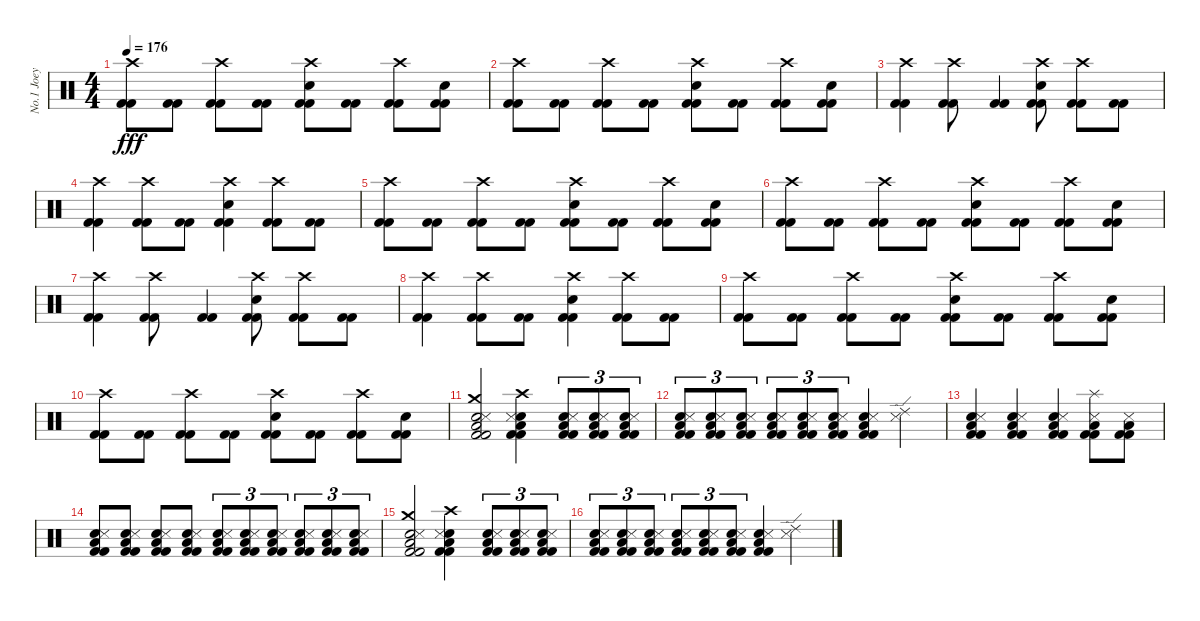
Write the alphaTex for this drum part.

\track ("No.1 Joey" "No.1 Joey") {instrument percussion}
\staff {score}
\articulation defaults
\ts (4 4)
\tempo 176
\clef neutral
\ks c
("Crash high (hit)" "Kick (hit) 2" "Kick (hit) 2").8{dy fff} ("Kick (hit) 2" "Kick (hit) 2").8 ("Crash high (hit)" "Kick (hit) 2" "Kick (hit) 2").8 ("Kick (hit) 2" "Kick (hit) 2").8 ("Electric Snare (hit)" "Crash high (hit)" "Kick (hit) 2" "Kick (hit) 2").8 ("Kick (hit) 2" "Kick (hit) 2").8 ("Crash high (hit)" "Kick (hit) 2" "Kick (hit) 2").8 ("Electric Snare (hit)" "Kick (hit) 2" "Kick (hit) 2").8 |
("Crash high (hit)" "Kick (hit) 2" "Kick (hit) 2").8 ("Kick (hit) 2" "Kick (hit) 2").8 ("Crash high (hit)" "Kick (hit) 2" "Kick (hit) 2").8 ("Kick (hit) 2" "Kick (hit) 2").8 ("Electric Snare (hit)" "Crash high (hit)" "Kick (hit) 2" "Kick (hit) 2").8 ("Kick (hit) 2" "Kick (hit) 2").8 ("Crash high (hit)" "Kick (hit) 2" "Kick (hit) 2").8 ("Electric Snare (hit)" "Kick (hit) 2" "Kick (hit) 2").8 |
("Crash high (hit)" "Kick (hit) 2" "Kick (hit) 2").4 ("Crash high (hit)" "Kick (hit) 2" "Kick (hit) 2").8 ("Kick (hit) 2" "Kick (hit) 2").4 ("Electric Snare (hit)" "Crash high (hit)" "Kick (hit) 2" "Kick (hit) 2").8 ("Crash high (hit)" "Kick (hit) 2" "Kick (hit) 2").8 ("Kick (hit) 2" "Kick (hit) 2").8 |
("Crash high (hit)" "Kick (hit) 2" "Kick (hit) 2").4 ("Crash high (hit)" "Kick (hit) 2" "Kick (hit) 2").8 ("Kick (hit) 2" "Kick (hit) 2").8 ("Electric Snare (hit)" "Crash high (hit)" "Kick (hit) 2" "Kick (hit) 2").4 ("Crash high (hit)" "Kick (hit) 2" "Kick (hit) 2").8 ("Kick (hit) 2" "Kick (hit) 2").8 |
("Crash high (hit)" "Kick (hit) 2" "Kick (hit) 2").8 ("Kick (hit) 2" "Kick (hit) 2").8 ("Crash high (hit)" "Kick (hit) 2" "Kick (hit) 2").8 ("Kick (hit) 2" "Kick (hit) 2").8 ("Electric Snare (hit)" "Crash high (hit)" "Kick (hit) 2" "Kick (hit) 2").8 ("Kick (hit) 2" "Kick (hit) 2").8 ("Crash high (hit)" "Kick (hit) 2" "Kick (hit) 2").8 ("Electric Snare (hit)" "Kick (hit) 2" "Kick (hit) 2").8 |
("Crash high (hit)" "Kick (hit) 2" "Kick (hit) 2").8 ("Kick (hit) 2" "Kick (hit) 2").8 ("Crash high (hit)" "Kick (hit) 2" "Kick (hit) 2").8 ("Kick (hit) 2" "Kick (hit) 2").8 ("Electric Snare (hit)" "Crash high (hit)" "Kick (hit) 2" "Kick (hit) 2").8 ("Kick (hit) 2" "Kick (hit) 2").8 ("Crash high (hit)" "Kick (hit) 2" "Kick (hit) 2").8 ("Electric Snare (hit)" "Kick (hit) 2" "Kick (hit) 2").8 |
("Crash high (hit)" "Kick (hit) 2" "Kick (hit) 2").4 ("Crash high (hit)" "Kick (hit) 2" "Kick (hit) 2").8 ("Kick (hit) 2" "Kick (hit) 2").4 ("Electric Snare (hit)" "Crash high (hit)" "Kick (hit) 2" "Kick (hit) 2").8 ("Crash high (hit)" "Kick (hit) 2" "Kick (hit) 2").8 ("Kick (hit) 2" "Kick (hit) 2").8 |
("Crash high (hit)" "Kick (hit) 2" "Kick (hit) 2").4 ("Crash high (hit)" "Kick (hit) 2" "Kick (hit) 2").8 ("Kick (hit) 2" "Kick (hit) 2").8 ("Electric Snare (hit)" "Crash high (hit)" "Kick (hit) 2" "Kick (hit) 2").4 ("Crash high (hit)" "Kick (hit) 2" "Kick (hit) 2").8 ("Kick (hit) 2" "Kick (hit) 2").8 |
("Crash high (hit)" "Kick (hit) 2" "Kick (hit) 2").8 ("Kick (hit) 2" "Kick (hit) 2").8 ("Crash high (hit)" "Kick (hit) 2" "Kick (hit) 2").8 ("Kick (hit) 2" "Kick (hit) 2").8 ("Electric Snare (hit)" "Crash high (hit)" "Kick (hit) 2" "Kick (hit) 2").8 ("Kick (hit) 2" "Kick (hit) 2").8 ("Crash high (hit)" "Kick (hit) 2" "Kick (hit) 2").8 ("Electric Snare (hit)" "Kick (hit) 2" "Kick (hit) 2").8 |
("Crash high (hit)" "Kick (hit) 2" "Kick (hit) 2").8 ("Kick (hit) 2" "Kick (hit) 2").8 ("Crash high (hit)" "Kick (hit) 2" "Kick (hit) 2").8 ("Kick (hit) 2" "Kick (hit) 2").8 ("Electric Snare (hit)" "Crash high (hit)" "Kick (hit) 2" "Kick (hit) 2").8 ("Kick (hit) 2" "Kick (hit) 2").8 ("Crash high (hit)" "Kick (hit) 2" "Kick (hit) 2").8 ("Electric Snare (hit)" "Kick (hit) 2" "Kick (hit) 2").8 |
("Electric Snare (hit)" "Crash medium (hit)" "Snare (side stick) 3" "Low Floor Tom (hit)" "Kick (hit) 2" "Kick (hit) 2").2 ("Electric Snare (hit)" "Crash high (hit)" "Snare (side stick) 3" "Low Floor Tom (hit)" "Kick (hit) 2" "Kick (hit) 2").4 ("Snare (hit) 2" "Snare (side stick) 3" "Low Floor Tom (hit)" "Kick (hit) 2" "Kick (hit) 2").8{tu (3 2)} ("Snare (hit) 2" "Snare (side stick) 3" "Low Floor Tom (hit)" "Kick (hit) 2" "Kick (hit) 2").8{tu (3 2)} ("Snare (hit) 2" "Snare (side stick) 3" "Low Floor Tom (hit)" "Kick (hit) 2" "Kick (hit) 2").8{tu (3 2)} |
("Snare (hit) 2" "Snare (side stick) 3" "Low Floor Tom (hit)" "Kick (hit) 2" "Kick (hit) 2").8{tu (3 2)} ("Snare (hit) 2" "Snare (side stick) 3" "Low Floor Tom (hit)" "Kick (hit) 2" "Kick (hit) 2").8{tu (3 2)} ("Snare (hit) 2" "Snare (side stick) 3" "Low Floor Tom (hit)" "Kick (hit) 2" "Kick (hit) 2").8{tu (3 2)} ("Snare (hit) 2" "Snare (side stick) 3" "Low Floor Tom (hit)" "Kick (hit) 2" "Kick (hit) 2").8{tu (3 2)} ("Snare (hit) 2" "Snare (side stick) 3" "Low Floor Tom (hit)" "Kick (hit) 2" "Kick (hit) 2").8{tu (3 2)} ("Snare (hit) 2" "Snare (side stick) 3" "Low Floor Tom (hit)" "Kick (hit) 2" "Kick (hit) 2").8{tu (3 2)} ("Snare (hit) 2" "Snare (side stick) 3" "Low Floor Tom (hit)" "Kick (hit) 2" "Kick (hit) 2").4 ("Ride (edge) 2" "Snare (side stick) 3").4 |
("Electric Snare (hit)" "Snare (side stick) 3" "Low Floor Tom (hit)" "Kick (hit) 2" "Kick (hit) 2").4 ("Electric Snare (hit)" "Snare (side stick) 3" "Low Floor Tom (hit)" "Kick (hit) 2" "Kick (hit) 2").4 ("Electric Snare (hit)" "Snare (side stick) 3" "Low Floor Tom (hit)" "Kick (hit) 2" "Kick (hit) 2").4 ("Splash (hit)" "Snare (side stick) 3" "Low Floor Tom (hit)" "Kick (hit) 2" "Kick (hit) 2").8 ("Snare (side stick) 3" "Low Floor Tom (hit)" "Kick (hit) 2" "Kick (hit) 2").8 |
("Snare (hit) 2" "Snare (side stick) 3" "Low Floor Tom (hit)" "Kick (hit) 2" "Kick (hit) 2").8 ("Snare (hit) 2" "Snare (side stick) 3" "Low Floor Tom (hit)" "Kick (hit) 2" "Kick (hit) 2").8 ("Snare (hit) 2" "Snare (side stick) 3" "Low Floor Tom (hit)" "Kick (hit) 2" "Kick (hit) 2").8 ("Snare (hit) 2" "Snare (side stick) 3" "Low Floor Tom (hit)" "Kick (hit) 2" "Kick (hit) 2").8 ("Snare (hit) 2" "Snare (side stick) 3" "Low Floor Tom (hit)" "Kick (hit) 2" "Kick (hit) 2").8{tu (3 2)} ("Snare (hit) 2" "Snare (side stick) 3" "Low Floor Tom (hit)" "Kick (hit) 2" "Kick (hit) 2").8{tu (3 2)} ("Snare (hit) 2" "Snare (side stick) 3" "Low Floor Tom (hit)" "Kick (hit) 2" "Kick (hit) 2").8{tu (3 2)} ("Snare (hit) 2" "Snare (side stick) 3" "Low Floor Tom (hit)" "Kick (hit) 2" "Kick (hit) 2").8{tu (3 2)} ("Snare (hit) 2" "Snare (side stick) 3" "Low Floor Tom (hit)" "Kick (hit) 2" "Kick (hit) 2").8{tu (3 2)} ("Snare (hit) 2" "Snare (side stick) 3" "Low Floor Tom (hit)" "Kick (hit) 2" "Kick (hit) 2").8{tu (3 2)} |
("Electric Snare (hit)" "Crash medium (hit)" "Snare (side stick) 3" "Low Floor Tom (hit)" "Kick (hit) 2" "Kick (hit) 2").2 ("Electric Snare (hit)" "Crash high (hit)" "Snare (side stick) 3" "Low Floor Tom (hit)" "Kick (hit) 2" "Kick (hit) 2").4 ("Snare (hit) 2" "Snare (side stick) 3" "Low Floor Tom (hit)" "Kick (hit) 2" "Kick (hit) 2").8{tu (3 2)} ("Snare (hit) 2" "Snare (side stick) 3" "Low Floor Tom (hit)" "Kick (hit) 2" "Kick (hit) 2").8{tu (3 2)} ("Snare (hit) 2" "Snare (side stick) 3" "Low Floor Tom (hit)" "Kick (hit) 2" "Kick (hit) 2").8{tu (3 2)} |
("Snare (hit) 2" "Snare (side stick) 3" "Low Floor Tom (hit)" "Kick (hit) 2" "Kick (hit) 2").8{tu (3 2)} ("Snare (hit) 2" "Snare (side stick) 3" "Low Floor Tom (hit)" "Kick (hit) 2" "Kick (hit) 2").8{tu (3 2)} ("Snare (hit) 2" "Snare (side stick) 3" "Low Floor Tom (hit)" "Kick (hit) 2" "Kick (hit) 2").8{tu (3 2)} ("Snare (hit) 2" "Snare (side stick) 3" "Low Floor Tom (hit)" "Kick (hit) 2" "Kick (hit) 2").8{tu (3 2)} ("Snare (hit) 2" "Snare (side stick) 3" "Low Floor Tom (hit)" "Kick (hit) 2" "Kick (hit) 2").8{tu (3 2)} ("Snare (hit) 2" "Snare (side stick) 3" "Low Floor Tom (hit)" "Kick (hit) 2" "Kick (hit) 2").8{tu (3 2)} ("Snare (hit) 2" "Snare (side stick) 3" "Low Floor Tom (hit)" "Kick (hit) 2" "Kick (hit) 2").4 ("Ride (edge) 2" "Snare (side stick) 3").4
